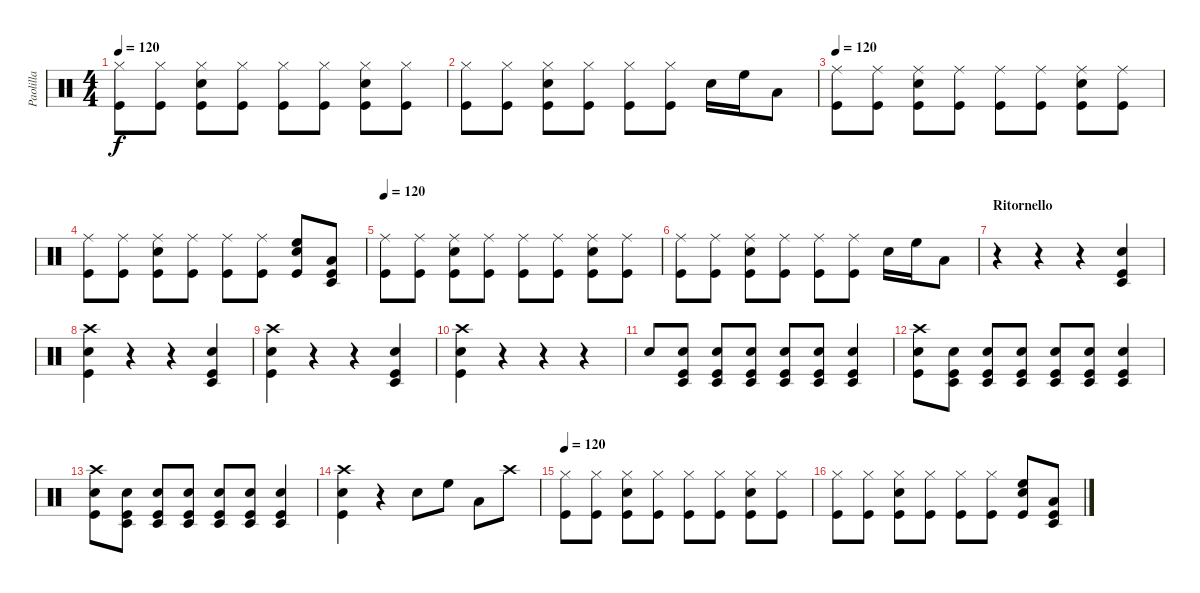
\track ("Paolilla" "Paolilla") {instrument percussion}
\staff {score}
\articulation defaults
\ts (4 4)
\tempo 120
\clef neutral
\ks c
("Hi-Hat (closed)" "Kick (hit)").8{dy f} ("Hi-Hat (closed)" "Kick (hit)").8 ("Hi-Hat (closed)" "Snare (hit) 2" "Kick (hit)").8 ("Hi-Hat (closed)" "Kick (hit)").8 ("Hi-Hat (closed)" "Kick (hit)").8 ("Hi-Hat (closed)" "Kick (hit)").8 ("Hi-Hat (closed)" "Snare (hit) 2" "Kick (hit)").8 ("Hi-Hat (closed)" "Kick (hit)").8 |
("Hi-Hat (closed)" "Kick (hit)").8 ("Hi-Hat (closed)" "Kick (hit)").8 ("Hi-Hat (closed)" "Snare (hit) 2" "Kick (hit)").8 ("Hi-Hat (closed)" "Kick (hit)").8 ("Hi-Hat (closed)" "Kick (hit)").8 ("Hi-Hat (closed)" "Kick (hit)").8 "Snare (hit) 2".16 "High Floor Tom (hit)".16 "Low Tom (hit)".8 |
\tempo 120
("Ride (middle)" "Kick (hit)").8 ("Ride (middle)" "Kick (hit)").8 ("Ride (middle)" "Snare (hit) 2" "Kick (hit)").8 ("Ride (middle)" "Kick (hit)").8 ("Ride (middle)" "Kick (hit)").8 ("Ride (middle)" "Kick (hit)").8 ("Ride (middle)" "Snare (hit) 2" "Kick (hit)").8 ("Ride (middle)" "Kick (hit)").8 |
("Ride (middle)" "Kick (hit)").8 ("Ride (middle)" "Kick (hit)").8 ("Ride (middle)" "Snare (hit) 2" "Kick (hit)").8 ("Ride (middle)" "Kick (hit)").8 ("Ride (middle)" "Kick (hit)").8 ("Ride (middle)" "Kick (hit)").8 ("Snare (hit) 2" "High Floor Tom (hit)" "Kick (hit)").8 ("Timbale low (hit)" "Low Tom (hit)" "Kick (hit)").8 |
\tempo 120
("Ride (middle)" "Kick (hit)").8 ("Ride (middle)" "Kick (hit)").8 ("Ride (middle)" "Snare (hit) 2" "Kick (hit)").8 ("Ride (middle)" "Kick (hit)").8 ("Ride (middle)" "Kick (hit)").8 ("Ride (middle)" "Kick (hit)").8 ("Ride (middle)" "Snare (hit) 2" "Kick (hit)").8 ("Ride (middle)" "Kick (hit)").8 |
("Ride (middle)" "Kick (hit)").8 ("Ride (middle)" "Kick (hit)").8 ("Ride (middle)" "Snare (hit) 2" "Kick (hit)").8 ("Ride (middle)" "Kick (hit)").8 ("Ride (middle)" "Kick (hit)").8 ("Ride (middle)" "Kick (hit)").8 "Snare (hit) 2".16 "High Floor Tom (hit)".16 "Low Tom (hit)".8 |
\section ("" "Ritornello")
r.4 r.4 r.4 ("Timbale low (hit)" "Snare (hit) 2" "Kick (hit)").4 |
("Kick (hit)" "Crash high (hit)" "Snare (hit) 2").4 r.4 r.4 ("Timbale low (hit)" "Snare (hit) 2" "Kick (hit)").4 |
("Kick (hit)" "Crash high (hit)" "Snare (hit) 2").4 r.4 r.4 ("Timbale low (hit)" "Snare (hit) 2" "Kick (hit)").4 |
("Kick (hit)" "Crash high (hit)" "Snare (hit) 2").4 r.4 r.4 r.4 |
"Snare (hit) 2".8 ("Kick (hit)" "Timbale low (hit)" "Snare (hit) 2").8{volume 4} ("Kick (hit)" "Timbale low (hit)" "Snare (hit) 2").8{volume 5} ("Kick (hit)" "Timbale low (hit)" "Snare (hit) 2").8{volume 7} ("Kick (hit)" "Timbale low (hit)" "Snare (hit) 2").8{volume 9} ("Kick (hit)" "Timbale low (hit)" "Snare (hit) 2").8{volume 11} ("Timbale low (hit)" "Snare (hit) 2" "Kick (hit)").4{volume 16} |
("Crash high (hit)" "Kick (hit)" "Snare (hit) 2").8 ("Kick (hit)" "Timbale low (hit)" "Snare (hit) 2").8{volume 4} ("Kick (hit)" "Timbale low (hit)" "Snare (hit) 2").8{volume 5} ("Kick (hit)" "Timbale low (hit)" "Snare (hit) 2").8{volume 7} ("Kick (hit)" "Timbale low (hit)" "Snare (hit) 2").8{volume 9} ("Kick (hit)" "Timbale low (hit)" "Snare (hit) 2").8{volume 11} ("Timbale low (hit)" "Snare (hit) 2" "Kick (hit)").4{volume 16} |
("Kick (hit)" "Crash high (hit)" "Snare (hit) 2").8 ("Kick (hit)" "Timbale low (hit)" "Snare (hit) 2").8{volume 4} ("Kick (hit)" "Timbale low (hit)" "Snare (hit) 2").8{volume 5} ("Kick (hit)" "Timbale low (hit)" "Snare (hit) 2").8{volume 7} ("Kick (hit)" "Timbale low (hit)" "Snare (hit) 2").8{volume 9} ("Kick (hit)" "Timbale low (hit)" "Snare (hit) 2").8{volume 11} ("Timbale low (hit)" "Snare (hit) 2" "Kick (hit)").4{volume 16} |
("Kick (hit)" "Crash high (hit)" "Snare (hit) 2").4 r.4 "Snare (hit) 2".8 "High Floor Tom (hit)".8 "Low Tom (hit)".8 "Crash high (hit)".8 |
\tempo 120
("Hi-Hat (closed)" "Kick (hit)").8 ("Hi-Hat (closed)" "Kick (hit)").8 ("Hi-Hat (closed)" "Snare (hit) 2" "Kick (hit)").8 ("Hi-Hat (closed)" "Kick (hit)").8 ("Hi-Hat (closed)" "Kick (hit)").8 ("Hi-Hat (closed)" "Kick (hit)").8 ("Hi-Hat (closed)" "Snare (hit) 2" "Kick (hit)").8 ("Hi-Hat (closed)" "Kick (hit)").8 |
("Hi-Hat (closed)" "Kick (hit)").8 ("Hi-Hat (closed)" "Kick (hit)").8 ("Hi-Hat (closed)" "Snare (hit) 2" "Kick (hit)").8 ("Hi-Hat (closed)" "Kick (hit)").8 ("Hi-Hat (closed)" "Kick (hit)").8 ("Hi-Hat (closed)" "Kick (hit)").8 ("Snare (hit) 2" "High Floor Tom (hit)" "Kick (hit)").8 ("Timbale low (hit)" "Low Tom (hit)" "Kick (hit)").8
